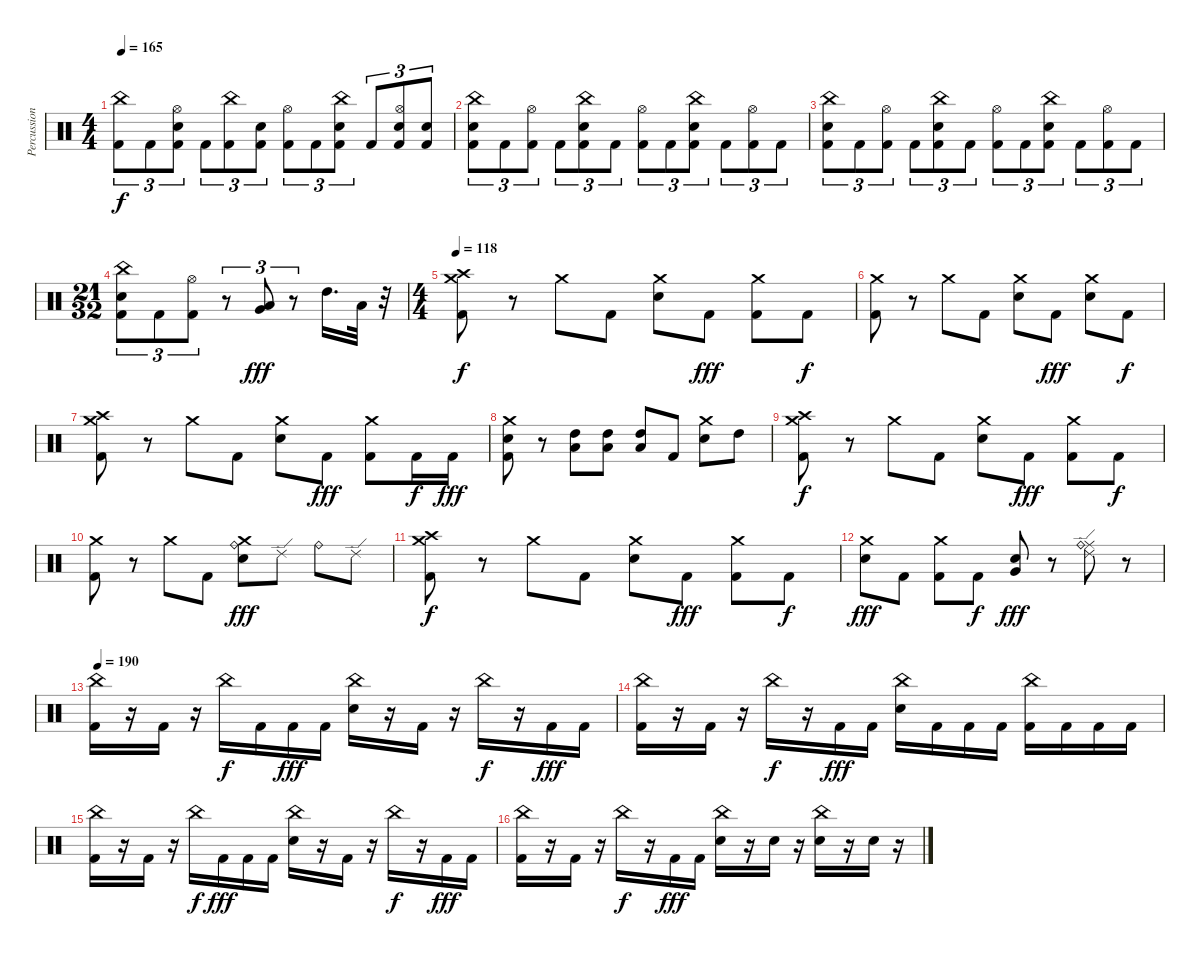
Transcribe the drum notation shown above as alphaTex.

\track ("Percussion" "Percussion") {instrument percussion}
\staff {score}
\articulation defaults
\ts (4 4)
\tempo 165
\clef neutral
\ks c
("China (hit)" "Kick (hit) 2").8{tu (3 2) dy f} "Kick (hit) 2".8{tu (3 2)} ("Hi-Hat (open)" "Electric Snare (hit)" "Kick (hit) 2").8{tu (3 2)} "Kick (hit) 2".8{tu (3 2)} ("China (hit)" "Kick (hit) 2").8{tu (3 2)} ("Electric Snare (hit)" "Kick (hit) 2").8{tu (3 2)} ("Hi-Hat (open)" "Kick (hit) 2").8{tu (3 2)} "Kick (hit) 2".8{tu (3 2)} ("China (hit)" "Electric Snare (hit)" "Kick (hit) 2").8{tu (3 2)} "Kick (hit) 2".8{tu (3 2)} ("Hi-Hat (open)" "Electric Snare (hit)" "Kick (hit) 2").8{tu (3 2)} ("Electric Snare (hit)" "Kick (hit) 2").8{tu (3 2)} |
("China (hit)" "Electric Snare (hit)" "Kick (hit) 2").8{tu (3 2)} "Kick (hit) 2".8{tu (3 2)} ("Hi-Hat (open)" "Kick (hit) 2").8{tu (3 2)} "Kick (hit) 2".8{tu (3 2)} ("China (hit)" "Electric Snare (hit)" "Kick (hit) 2").8{tu (3 2)} "Kick (hit) 2".8{tu (3 2)} ("Hi-Hat (open)" "Kick (hit) 2").8{tu (3 2)} "Kick (hit) 2".8{tu (3 2)} ("China (hit)" "Electric Snare (hit)" "Kick (hit) 2").8{tu (3 2)} "Kick (hit) 2".8{tu (3 2)} ("Hi-Hat (open)" "Kick (hit) 2").8{tu (3 2)} "Kick (hit) 2".8{tu (3 2)} |
("China (hit)" "Electric Snare (hit)" "Kick (hit) 2").8{tu (3 2)} "Kick (hit) 2".8{tu (3 2)} ("Hi-Hat (open)" "Kick (hit) 2").8{tu (3 2)} "Kick (hit) 2".8{tu (3 2)} ("China (hit)" "Electric Snare (hit)" "Kick (hit) 2").8{tu (3 2)} "Kick (hit) 2".8{tu (3 2)} ("Hi-Hat (open)" "Kick (hit) 2").8{tu (3 2)} "Kick (hit) 2".8{tu (3 2)} ("China (hit)" "Electric Snare (hit)" "Kick (hit) 2").8{tu (3 2)} "Kick (hit) 2".8{tu (3 2)} ("Hi-Hat (open)" "Kick (hit) 2").8{tu (3 2)} "Kick (hit) 2".8{tu (3 2)} |
\ts (21 32)
("China (hit)" "Electric Snare (hit)" "Kick (hit) 2").8{tu (3 2)} "Kick (hit) 2".8{tu (3 2)} ("Hi-Hat (open)" "Kick (hit) 2").8{tu (3 2)} r.8{tu (3 2)} ("Very Low Tom (hit)" "Low Tom (hit)").8{tu (3 2) dy fff} r.8{tu (3 2)} "High Tom (hit)".16{d} "Low Tom (hit)".32 r.32 |
\ts (4 4)
\tempo 118
("Crash high (hit)" "Crash medium (hit)" "Kick (hit) 2").8{dy f} r.8 "Crash medium (hit)".8 "Kick (hit) 2".8 ("Crash medium (hit)" "Electric Snare (hit)").8 "Kick (hit) 2".8{dy fff} ("Crash medium (hit)" "Kick (hit) 2").8 "Kick (hit) 2".8{dy f} |
("Crash medium (hit)" "Kick (hit) 2").8 r.8 "Crash medium (hit)".8 "Kick (hit) 2".8 ("Crash medium (hit)" "Electric Snare (hit)").8 "Kick (hit) 2".8{dy fff} ("Crash medium (hit)" "Electric Snare (hit)").8 "Kick (hit) 2".8{dy f} |
("Crash high (hit)" "Crash medium (hit)" "Kick (hit) 2").8 r.8 "Crash medium (hit)".8 "Kick (hit) 2".8 ("Crash medium (hit)" "Electric Snare (hit)").8 "Kick (hit) 2".8{dy fff} ("Crash medium (hit)" "Kick (hit) 2").8 "Kick (hit) 2".16{dy f} "Kick (hit) 2".16{dy fff} |
("Crash medium (hit)" "Electric Snare (hit)" "Kick (hit) 2").8 r.8 ("High Tom (hit)" "Low Tom (hit)").8 ("High Tom (hit)" "Low Tom (hit)").8 ("High Tom (hit)" "Low Tom (hit)").8 "Kick (hit) 2".8 ("Crash medium (hit)" "Electric Snare (hit)").8 "High Tom (hit)".8 |
("Crash high (hit)" "Crash medium (hit)" "Kick (hit) 2").8{dy f} r.8 "Crash medium (hit)".8 "Kick (hit) 2".8 ("Crash medium (hit)" "Electric Snare (hit)").8 "Kick (hit) 2".8{dy fff} ("Crash medium (hit)" "Kick (hit) 2").8 "Kick (hit) 2".8{dy f} |
("Crash medium (hit)" "Kick (hit) 2").8 r.8 "Crash medium (hit)".8 "Kick (hit) 2".8 ("Crash medium (hit)" "Ride (bell)" "Electric Snare (hit)").8{dy fff} "Ride (edge) 2".8 "Ride (bell)".8 "Ride (edge) 2".8 |
("Crash high (hit)" "Crash medium (hit)" "Kick (hit) 2").8{dy f} r.8 "Crash medium (hit)".8 "Kick (hit) 2".8 ("Crash medium (hit)" "Electric Snare (hit)").8 "Kick (hit) 2".8{dy fff} ("Crash medium (hit)" "Kick (hit) 2").8 "Kick (hit) 2".8{dy f} |
("Crash medium (hit)" "Electric Snare (hit)").8{dy fff} "Kick (hit) 2".8 ("Crash medium (hit)" "Kick (hit) 2").8 "Kick (hit) 2".8{dy f} ("Very Low Tom (hit)" "Electric Snare (hit)").8{dy fff} r.8 ("Ride (middle)" "Ride (edge) 2" "Ride (bell)").8 r.8 |
\tempo 190
("China (hit)" "Kick (hit) 2").16 r.16 "Kick (hit) 2".16 r.16 "China (hit)".16{dy f} "Kick (hit) 2".16 "Kick (hit) 2".16{dy fff} "Kick (hit) 2".16 ("China (hit)" "Electric Snare (hit)").16 r.16 "Kick (hit) 2".16 r.16 "China (hit)".16{dy f} r.16 "Kick (hit) 2".16{dy fff} "Kick (hit) 2".16 |
("China (hit)" "Kick (hit) 2").16 r.16 "Kick (hit) 2".16 r.16 "China (hit)".16{dy f} r.16 "Kick (hit) 2".16{dy fff} "Kick (hit) 2".16 ("China (hit)" "Electric Snare (hit)").16 "Kick (hit) 2".16 "Kick (hit) 2".16 "Kick (hit) 2".16 ("China (hit)" "Kick (hit) 2").16 "Kick (hit) 2".16 "Kick (hit) 2".16 "Kick (hit) 2".16 |
("China (hit)" "Kick (hit) 2").16 r.16 "Kick (hit) 2".16 r.16 "China (hit)".16{dy f} "Kick (hit) 2".16{dy fff} "Kick (hit) 2".16 "Kick (hit) 2".16 ("China (hit)" "Electric Snare (hit)").16 r.16 "Kick (hit) 2".16 r.16 "China (hit)".16{dy f} r.16 "Kick (hit) 2".16{dy fff} "Kick (hit) 2".16 |
("China (hit)" "Kick (hit) 2").16 r.16 "Kick (hit) 2".16 r.16 "China (hit)".16{dy f} r.16 "Kick (hit) 2".16{dy fff} "Kick (hit) 2".16 ("China (hit)" "Electric Snare (hit)").16 r.16 "Electric Snare (hit)".16 r.16 ("China (hit)" "Electric Snare (hit)").16 r.16 "Electric Snare (hit)".16 r.16
